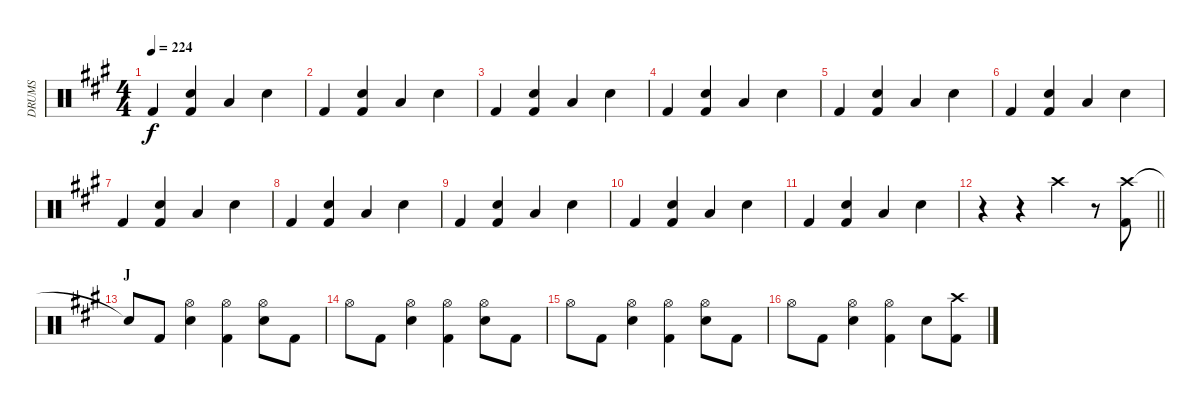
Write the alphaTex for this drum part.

\track ("DRUMS" "DRUMS") {instrument percussion}
\staff {score}
\articulation defaults
\ts (4 4)
\tempo 224
\clef neutral
\ks a "Kick (hit) 2".4{dy f}
("Electric Snare (hit)" "Kick (hit) 2").4 "Low Floor Tom (hit)".4 "Electric Snare (hit)".4 |
"Kick (hit) 2".4 ("Electric Snare (hit)" "Kick (hit) 2").4 "Low Floor Tom (hit)".4 "Electric Snare (hit)".4 |
"Kick (hit) 2".4 ("Electric Snare (hit)" "Kick (hit) 2").4 "Low Floor Tom (hit)".4 "Electric Snare (hit)".4 |
"Kick (hit) 2".4 ("Electric Snare (hit)" "Kick (hit) 2").4 "Low Floor Tom (hit)".4 "Electric Snare (hit)".4 |
"Kick (hit) 2".4 ("Electric Snare (hit)" "Kick (hit) 2").4 "Low Floor Tom (hit)".4 "Electric Snare (hit)".4 |
"Kick (hit) 2".4 ("Electric Snare (hit)" "Kick (hit) 2").4 "Low Floor Tom (hit)".4 "Electric Snare (hit)".4 |
"Kick (hit) 2".4 ("Electric Snare (hit)" "Kick (hit) 2").4 "Low Floor Tom (hit)".4 "Electric Snare (hit)".4 |
"Kick (hit) 2".4 ("Electric Snare (hit)" "Kick (hit) 2").4 "Low Floor Tom (hit)".4 "Electric Snare (hit)".4 |
"Kick (hit) 2".4 ("Electric Snare (hit)" "Kick (hit) 2").4 "Low Floor Tom (hit)".4 "Electric Snare (hit)".4 |
"Kick (hit) 2".4 ("Electric Snare (hit)" "Kick (hit) 2").4 "Low Floor Tom (hit)".4 "Electric Snare (hit)".4 |
"Kick (hit) 2".4 ("Electric Snare (hit)" "Kick (hit) 2").4 "Low Floor Tom (hit)".4 "Electric Snare (hit)".4 |
\barLineRight lightlight
r.4 r.4 "Crash high (hit)".4 r.8 ("Crash high (hit)" "Kick (hit) 2").8 |
\section ("" "J")
"Snare (hit)"{t}.8 "Kick (hit) 2".8 ("Hi-Hat (open)" "Snare (hit) 2").4 ("Hi-Hat (open)" "Kick (hit) 2").4 ("Hi-Hat (open)" "Snare (hit) 2").8 "Kick (hit) 2".8 |
"Hi-Hat (open)".8 "Kick (hit) 2".8 ("Hi-Hat (open)" "Snare (hit) 2").4 ("Hi-Hat (open)" "Kick (hit) 2").4 ("Hi-Hat (open)" "Snare (hit) 2").8 "Kick (hit) 2".8 |
"Hi-Hat (open)".8 "Kick (hit) 2".8 ("Hi-Hat (open)" "Snare (hit) 2").4 ("Hi-Hat (open)" "Kick (hit) 2").4 ("Hi-Hat (open)" "Snare (hit) 2").8 "Kick (hit) 2".8 |
"Hi-Hat (open)".8 "Kick (hit) 2".8 ("Hi-Hat (open)" "Snare (hit) 2").4 ("Hi-Hat (open)" "Kick (hit) 2").4 "Snare (hit) 2".8 ("Crash high (hit)" "Kick (hit) 2").8
